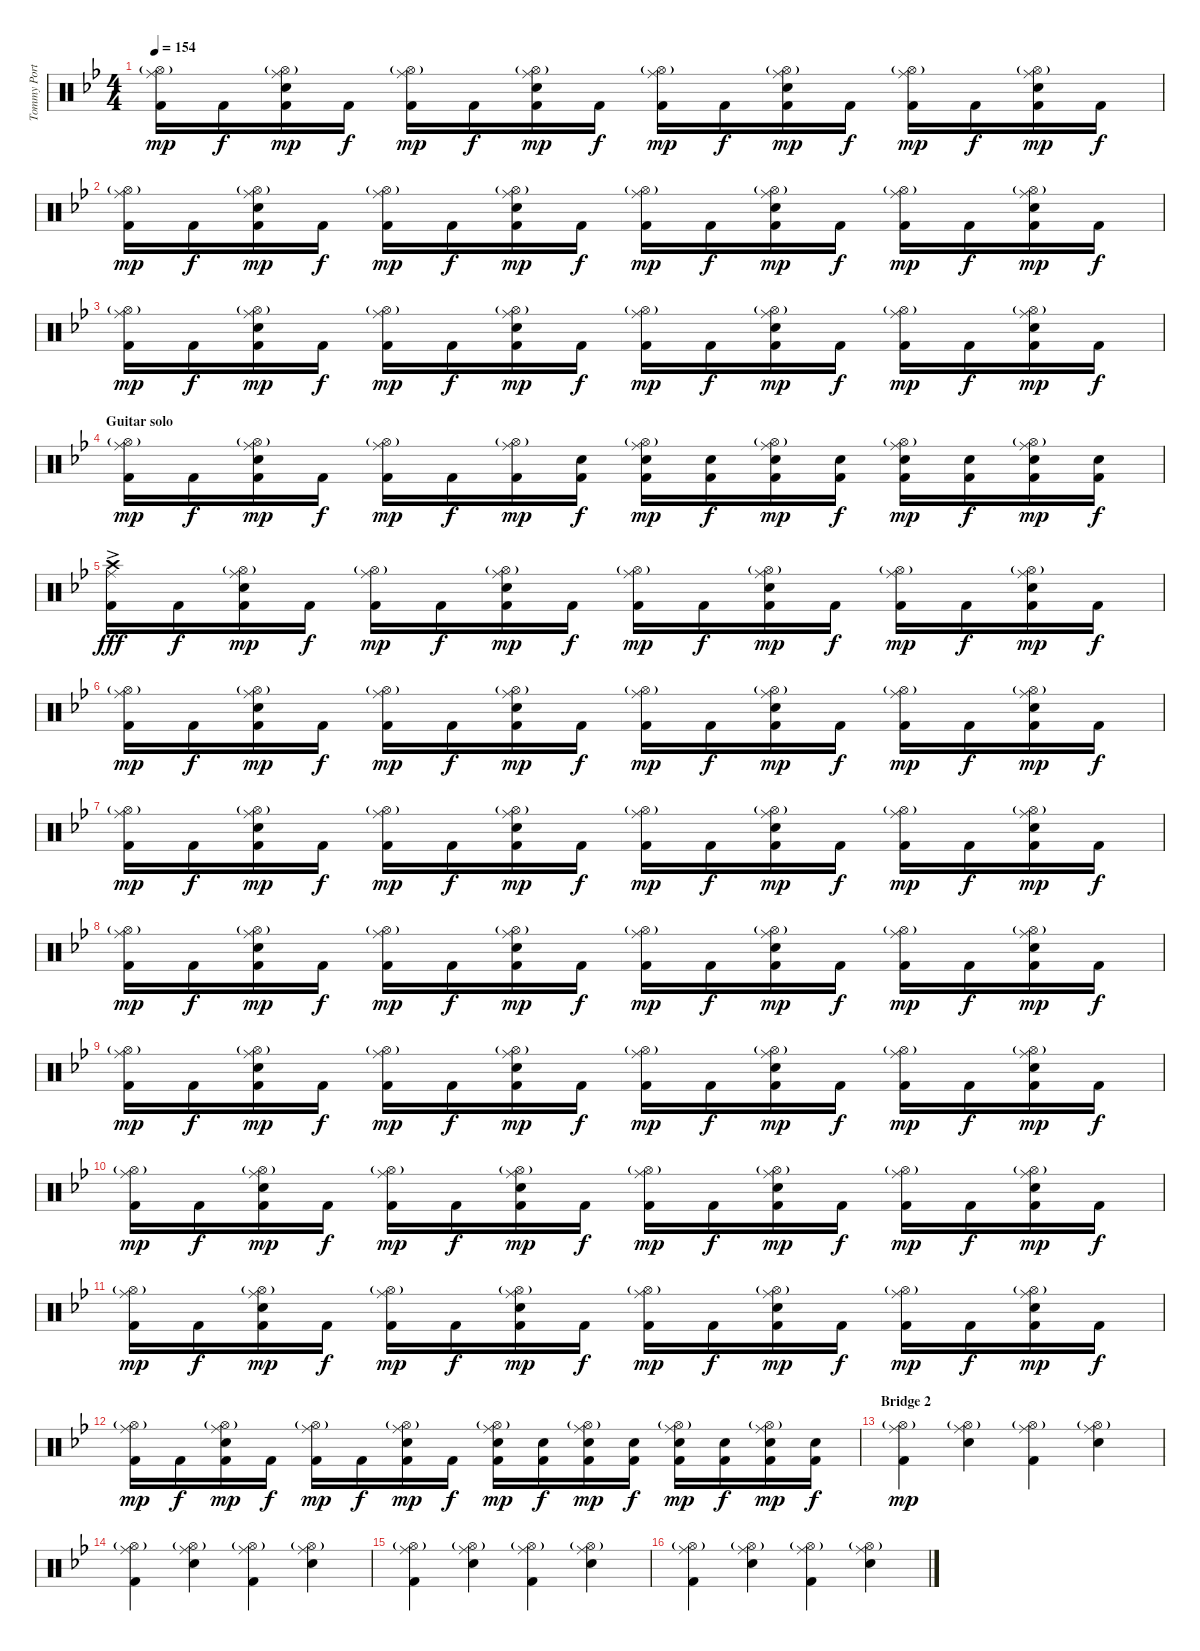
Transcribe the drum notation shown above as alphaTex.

\track ("Tommy Portimo" "Tommy Port") {instrument percussion}
\staff {score}
\articulation defaults
\ts (4 4)
\tempo 154
\clef neutral
\ks gminor
("Hi-Hat (open)"{g} "Ride (middle)" "Kick (hit) 2").16{dy mp} "Kick (hit) 2".16{dy f} ("Hi-Hat (open)"{g} "Ride (middle)" "Electric Snare (hit)" "Kick (hit) 2").16{dy mp} "Kick (hit) 2".16{dy f} ("Hi-Hat (open)"{g} "Ride (middle)" "Kick (hit) 2").16{dy mp} "Kick (hit) 2".16{dy f} ("Hi-Hat (open)"{g} "Ride (middle)" "Electric Snare (hit)" "Kick (hit) 2").16{dy mp} "Kick (hit) 2".16{dy f} ("Hi-Hat (open)"{g} "Ride (middle)" "Kick (hit) 2").16{dy mp} "Kick (hit) 2".16{dy f} ("Hi-Hat (open)"{g} "Ride (middle)" "Electric Snare (hit)" "Kick (hit) 2").16{dy mp} "Kick (hit) 2".16{dy f} ("Hi-Hat (open)"{g} "Ride (middle)" "Kick (hit) 2").16{dy mp} "Kick (hit) 2".16{dy f} ("Hi-Hat (open)"{g} "Ride (middle)" "Electric Snare (hit)" "Kick (hit) 2").16{dy mp} "Kick (hit) 2".16{dy f} |
("Hi-Hat (open)"{g} "Ride (middle)" "Kick (hit) 2").16{dy mp} "Kick (hit) 2".16{dy f} ("Hi-Hat (open)"{g} "Ride (middle)" "Electric Snare (hit)" "Kick (hit) 2").16{dy mp} "Kick (hit) 2".16{dy f} ("Hi-Hat (open)"{g} "Ride (middle)" "Kick (hit) 2").16{dy mp} "Kick (hit) 2".16{dy f} ("Hi-Hat (open)"{g} "Ride (middle)" "Electric Snare (hit)" "Kick (hit) 2").16{dy mp} "Kick (hit) 2".16{dy f} ("Hi-Hat (open)"{g} "Ride (middle)" "Kick (hit) 2").16{dy mp} "Kick (hit) 2".16{dy f} ("Hi-Hat (open)"{g} "Ride (middle)" "Electric Snare (hit)" "Kick (hit) 2").16{dy mp} "Kick (hit) 2".16{dy f} ("Hi-Hat (open)"{g} "Ride (middle)" "Kick (hit) 2").16{dy mp} "Kick (hit) 2".16{dy f} ("Hi-Hat (open)"{g} "Ride (middle)" "Electric Snare (hit)" "Kick (hit) 2").16{dy mp} "Kick (hit) 2".16{dy f} |
("Hi-Hat (open)"{g} "Ride (middle)" "Kick (hit) 2").16{dy mp} "Kick (hit) 2".16{dy f} ("Hi-Hat (open)"{g} "Ride (middle)" "Electric Snare (hit)" "Kick (hit) 2").16{dy mp} "Kick (hit) 2".16{dy f} ("Hi-Hat (open)"{g} "Ride (middle)" "Kick (hit) 2").16{dy mp} "Kick (hit) 2".16{dy f} ("Hi-Hat (open)"{g} "Ride (middle)" "Electric Snare (hit)" "Kick (hit) 2").16{dy mp} "Kick (hit) 2".16{dy f} ("Hi-Hat (open)"{g} "Ride (middle)" "Kick (hit) 2").16{dy mp} "Kick (hit) 2".16{dy f} ("Hi-Hat (open)"{g} "Ride (middle)" "Electric Snare (hit)" "Kick (hit) 2").16{dy mp} "Kick (hit) 2".16{dy f} ("Hi-Hat (open)"{g} "Ride (middle)" "Kick (hit) 2").16{dy mp} "Kick (hit) 2".16{dy f} ("Hi-Hat (open)"{g} "Ride (middle)" "Electric Snare (hit)" "Kick (hit) 2").16{dy mp} "Kick (hit) 2".16{dy f} |
\section ("" "Guitar solo")
("Hi-Hat (open)"{g} "Ride (middle)" "Kick (hit) 2").16{dy mp} "Kick (hit) 2".16{dy f} ("Hi-Hat (open)"{g} "Ride (middle)" "Electric Snare (hit)" "Kick (hit) 2").16{dy mp} "Kick (hit) 2".16{dy f} ("Hi-Hat (open)"{g} "Ride (middle)" "Kick (hit) 2").16{dy mp} "Kick (hit) 2".16{dy f} ("Hi-Hat (open)"{g} "Ride (middle)" "Kick (hit) 2").16{dy mp} ("Electric Snare (hit)" "Kick (hit) 2").16{dy f} ("Hi-Hat (open)"{g} "Ride (middle)" "Electric Snare (hit)" "Kick (hit) 2").16{dy mp} ("Electric Snare (hit)" "Kick (hit) 2").16{dy f} ("Hi-Hat (open)"{g} "Ride (middle)" "Electric Snare (hit)" "Kick (hit) 2").16{dy mp} ("Electric Snare (hit)" "Kick (hit) 2").16{dy f} ("Hi-Hat (open)"{g} "Ride (middle)" "Electric Snare (hit)" "Kick (hit) 2").16{dy mp} ("Electric Snare (hit)" "Kick (hit) 2").16{dy f} ("Hi-Hat (open)"{g} "Ride (middle)" "Electric Snare (hit)" "Kick (hit) 2").16{dy mp} ("Electric Snare (hit)" "Kick (hit) 2").16{dy f} |
("Crash high (hit)"{ac} "Ride (middle)" "Kick (hit) 2").16{dy fff} "Kick (hit) 2".16{dy f} ("Hi-Hat (open)"{g} "Ride (middle)" "Electric Snare (hit)" "Kick (hit) 2").16{dy mp} "Kick (hit) 2".16{dy f} ("Hi-Hat (open)"{g} "Ride (middle)" "Kick (hit) 2").16{dy mp} "Kick (hit) 2".16{dy f} ("Hi-Hat (open)"{g} "Ride (middle)" "Electric Snare (hit)" "Kick (hit) 2").16{dy mp} "Kick (hit) 2".16{dy f} ("Hi-Hat (open)"{g} "Ride (middle)" "Kick (hit) 2").16{dy mp} "Kick (hit) 2".16{dy f} ("Hi-Hat (open)"{g} "Ride (middle)" "Electric Snare (hit)" "Kick (hit) 2").16{dy mp} "Kick (hit) 2".16{dy f} ("Hi-Hat (open)"{g} "Ride (middle)" "Kick (hit) 2").16{dy mp} "Kick (hit) 2".16{dy f} ("Hi-Hat (open)"{g} "Ride (middle)" "Electric Snare (hit)" "Kick (hit) 2").16{dy mp} "Kick (hit) 2".16{dy f} |
("Hi-Hat (open)"{g} "Ride (middle)" "Kick (hit) 2").16{dy mp} "Kick (hit) 2".16{dy f} ("Hi-Hat (open)"{g} "Ride (middle)" "Electric Snare (hit)" "Kick (hit) 2").16{dy mp} "Kick (hit) 2".16{dy f} ("Hi-Hat (open)"{g} "Ride (middle)" "Kick (hit) 2").16{dy mp} "Kick (hit) 2".16{dy f} ("Hi-Hat (open)"{g} "Ride (middle)" "Electric Snare (hit)" "Kick (hit) 2").16{dy mp} "Kick (hit) 2".16{dy f} ("Hi-Hat (open)"{g} "Ride (middle)" "Kick (hit) 2").16{dy mp} "Kick (hit) 2".16{dy f} ("Hi-Hat (open)"{g} "Ride (middle)" "Electric Snare (hit)" "Kick (hit) 2").16{dy mp} "Kick (hit) 2".16{dy f} ("Hi-Hat (open)"{g} "Ride (middle)" "Kick (hit) 2").16{dy mp} "Kick (hit) 2".16{dy f} ("Hi-Hat (open)"{g} "Ride (middle)" "Electric Snare (hit)" "Kick (hit) 2").16{dy mp} "Kick (hit) 2".16{dy f} |
("Hi-Hat (open)"{g} "Ride (middle)" "Kick (hit) 2").16{dy mp} "Kick (hit) 2".16{dy f} ("Hi-Hat (open)"{g} "Ride (middle)" "Electric Snare (hit)" "Kick (hit) 2").16{dy mp} "Kick (hit) 2".16{dy f} ("Hi-Hat (open)"{g} "Ride (middle)" "Kick (hit) 2").16{dy mp} "Kick (hit) 2".16{dy f} ("Hi-Hat (open)"{g} "Ride (middle)" "Electric Snare (hit)" "Kick (hit) 2").16{dy mp} "Kick (hit) 2".16{dy f} ("Hi-Hat (open)"{g} "Ride (middle)" "Kick (hit) 2").16{dy mp} "Kick (hit) 2".16{dy f} ("Hi-Hat (open)"{g} "Ride (middle)" "Electric Snare (hit)" "Kick (hit) 2").16{dy mp} "Kick (hit) 2".16{dy f} ("Hi-Hat (open)"{g} "Ride (middle)" "Kick (hit) 2").16{dy mp} "Kick (hit) 2".16{dy f} ("Hi-Hat (open)"{g} "Ride (middle)" "Electric Snare (hit)" "Kick (hit) 2").16{dy mp} "Kick (hit) 2".16{dy f} |
("Hi-Hat (open)"{g} "Ride (middle)" "Kick (hit) 2").16{dy mp} "Kick (hit) 2".16{dy f} ("Hi-Hat (open)"{g} "Ride (middle)" "Electric Snare (hit)" "Kick (hit) 2").16{dy mp} "Kick (hit) 2".16{dy f} ("Hi-Hat (open)"{g} "Ride (middle)" "Kick (hit) 2").16{dy mp} "Kick (hit) 2".16{dy f} ("Hi-Hat (open)"{g} "Ride (middle)" "Electric Snare (hit)" "Kick (hit) 2").16{dy mp} "Kick (hit) 2".16{dy f} ("Hi-Hat (open)"{g} "Ride (middle)" "Kick (hit) 2").16{dy mp} "Kick (hit) 2".16{dy f} ("Hi-Hat (open)"{g} "Ride (middle)" "Electric Snare (hit)" "Kick (hit) 2").16{dy mp} "Kick (hit) 2".16{dy f} ("Hi-Hat (open)"{g} "Ride (middle)" "Kick (hit) 2").16{dy mp} "Kick (hit) 2".16{dy f} ("Hi-Hat (open)"{g} "Ride (middle)" "Electric Snare (hit)" "Kick (hit) 2").16{dy mp} "Kick (hit) 2".16{dy f} |
("Hi-Hat (open)"{g} "Ride (middle)" "Kick (hit) 2").16{dy mp} "Kick (hit) 2".16{dy f} ("Hi-Hat (open)"{g} "Ride (middle)" "Electric Snare (hit)" "Kick (hit) 2").16{dy mp} "Kick (hit) 2".16{dy f} ("Hi-Hat (open)"{g} "Ride (middle)" "Kick (hit) 2").16{dy mp} "Kick (hit) 2".16{dy f} ("Hi-Hat (open)"{g} "Ride (middle)" "Electric Snare (hit)" "Kick (hit) 2").16{dy mp} "Kick (hit) 2".16{dy f} ("Hi-Hat (open)"{g} "Ride (middle)" "Kick (hit) 2").16{dy mp} "Kick (hit) 2".16{dy f} ("Hi-Hat (open)"{g} "Ride (middle)" "Electric Snare (hit)" "Kick (hit) 2").16{dy mp} "Kick (hit) 2".16{dy f} ("Hi-Hat (open)"{g} "Ride (middle)" "Kick (hit) 2").16{dy mp} "Kick (hit) 2".16{dy f} ("Hi-Hat (open)"{g} "Ride (middle)" "Electric Snare (hit)" "Kick (hit) 2").16{dy mp} "Kick (hit) 2".16{dy f} |
("Hi-Hat (open)"{g} "Ride (middle)" "Kick (hit) 2").16{dy mp} "Kick (hit) 2".16{dy f} ("Hi-Hat (open)"{g} "Ride (middle)" "Electric Snare (hit)" "Kick (hit) 2").16{dy mp} "Kick (hit) 2".16{dy f} ("Hi-Hat (open)"{g} "Ride (middle)" "Kick (hit) 2").16{dy mp} "Kick (hit) 2".16{dy f} ("Hi-Hat (open)"{g} "Ride (middle)" "Electric Snare (hit)" "Kick (hit) 2").16{dy mp} "Kick (hit) 2".16{dy f} ("Hi-Hat (open)"{g} "Ride (middle)" "Kick (hit) 2").16{dy mp} "Kick (hit) 2".16{dy f} ("Hi-Hat (open)"{g} "Ride (middle)" "Electric Snare (hit)" "Kick (hit) 2").16{dy mp} "Kick (hit) 2".16{dy f} ("Hi-Hat (open)"{g} "Ride (middle)" "Kick (hit) 2").16{dy mp} "Kick (hit) 2".16{dy f} ("Hi-Hat (open)"{g} "Ride (middle)" "Electric Snare (hit)" "Kick (hit) 2").16{dy mp} "Kick (hit) 2".16{dy f} |
("Hi-Hat (open)"{g} "Ride (middle)" "Kick (hit) 2").16{dy mp} "Kick (hit) 2".16{dy f} ("Hi-Hat (open)"{g} "Ride (middle)" "Electric Snare (hit)" "Kick (hit) 2").16{dy mp} "Kick (hit) 2".16{dy f} ("Hi-Hat (open)"{g} "Ride (middle)" "Kick (hit) 2").16{dy mp} "Kick (hit) 2".16{dy f} ("Hi-Hat (open)"{g} "Ride (middle)" "Electric Snare (hit)" "Kick (hit) 2").16{dy mp} "Kick (hit) 2".16{dy f} ("Hi-Hat (open)"{g} "Ride (middle)" "Kick (hit) 2").16{dy mp} "Kick (hit) 2".16{dy f} ("Hi-Hat (open)"{g} "Ride (middle)" "Electric Snare (hit)" "Kick (hit) 2").16{dy mp} "Kick (hit) 2".16{dy f} ("Hi-Hat (open)"{g} "Ride (middle)" "Kick (hit) 2").16{dy mp} "Kick (hit) 2".16{dy f} ("Hi-Hat (open)"{g} "Ride (middle)" "Electric Snare (hit)" "Kick (hit) 2").16{dy mp} "Kick (hit) 2".16{dy f} |
("Hi-Hat (open)"{g} "Ride (middle)" "Kick (hit) 2").16{dy mp} "Kick (hit) 2".16{dy f} ("Hi-Hat (open)"{g} "Ride (middle)" "Electric Snare (hit)" "Kick (hit) 2").16{dy mp} "Kick (hit) 2".16{dy f} ("Hi-Hat (open)"{g} "Ride (middle)" "Kick (hit) 2").16{dy mp} "Kick (hit) 2".16{dy f} ("Hi-Hat (open)"{g} "Ride (middle)" "Electric Snare (hit)" "Kick (hit) 2").16{dy mp} "Kick (hit) 2".16{dy f} ("Hi-Hat (open)"{g} "Ride (middle)" "Electric Snare (hit)" "Kick (hit) 2").16{dy mp} ("Electric Snare (hit)" "Kick (hit) 2").16{dy f} ("Hi-Hat (open)"{g} "Ride (middle)" "Electric Snare (hit)" "Kick (hit) 2").16{dy mp} ("Electric Snare (hit)" "Kick (hit) 2").16{dy f} ("Hi-Hat (open)"{g} "Ride (middle)" "Electric Snare (hit)" "Kick (hit) 2").16{dy mp} ("Electric Snare (hit)" "Kick (hit) 2").16{dy f} ("Hi-Hat (open)"{g} "Ride (middle)" "Electric Snare (hit)" "Kick (hit) 2").16{dy mp} ("Electric Snare (hit)" "Kick (hit) 2").16{dy f} |
\section ("" "Bridge 2")
("Hi-Hat (open)"{g} "Ride (middle)" "Kick (hit) 2").4{dy mp} ("Hi-Hat (open)"{g} "Ride (middle)" "Electric Snare (hit)").4 ("Hi-Hat (open)"{g} "Ride (middle)" "Kick (hit) 2").4 ("Hi-Hat (open)"{g} "Ride (middle)" "Electric Snare (hit)").4 |
("Hi-Hat (open)"{g} "Ride (middle)" "Kick (hit) 2").4 ("Hi-Hat (open)"{g} "Ride (middle)" "Electric Snare (hit)").4 ("Hi-Hat (open)"{g} "Ride (middle)" "Kick (hit) 2").4 ("Hi-Hat (open)"{g} "Ride (middle)" "Electric Snare (hit)").4 |
("Hi-Hat (open)"{g} "Ride (middle)" "Kick (hit) 2").4 ("Hi-Hat (open)"{g} "Ride (middle)" "Electric Snare (hit)").4 ("Hi-Hat (open)"{g} "Ride (middle)" "Kick (hit) 2").4 ("Hi-Hat (open)"{g} "Ride (middle)" "Electric Snare (hit)").4 |
("Hi-Hat (open)"{g} "Ride (middle)" "Kick (hit) 2").4 ("Hi-Hat (open)"{g} "Ride (middle)" "Electric Snare (hit)").4 ("Hi-Hat (open)"{g} "Ride (middle)" "Kick (hit) 2").4 ("Hi-Hat (open)"{g} "Ride (middle)" "Electric Snare (hit)").4
